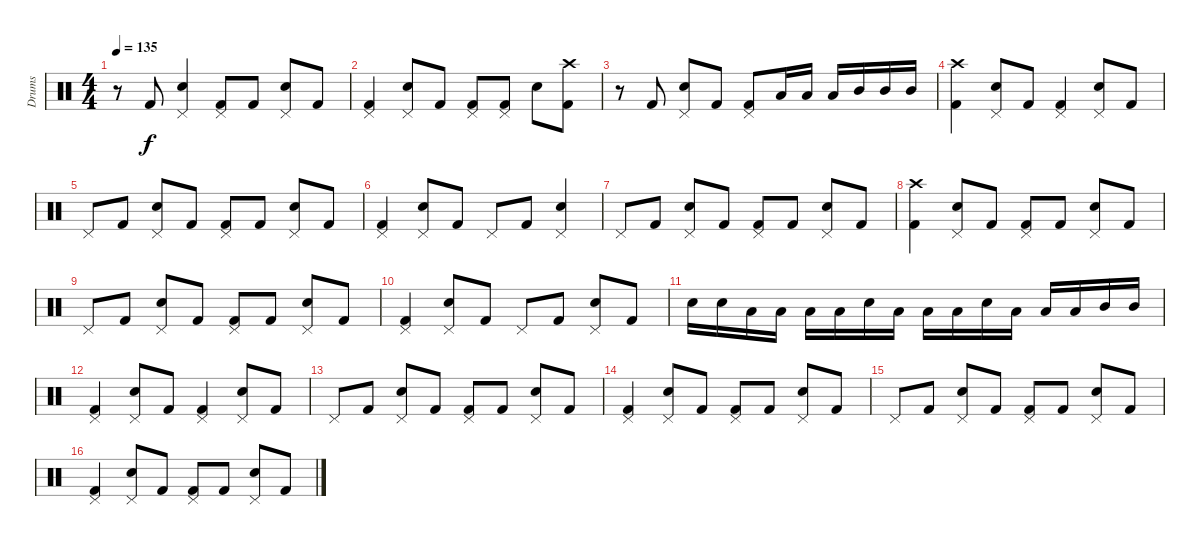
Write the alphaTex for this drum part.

\track ("Drums" "Drums") {instrument percussion}
\staff {score}
\articulation defaults
\ts (4 4)
\tempo 135
\clef neutral
\ks c
r.8{dy f} "Kick (hit) 2".8 ("Pedal Hi-Hat (hit)" "Electric Snare (hit)").4 ("Pedal Hi-Hat (hit)" "Kick (hit) 2").8 "Kick (hit) 2".8 ("Pedal Hi-Hat (hit)" "Electric Snare (hit)").8 "Kick (hit) 2".8 |
("Pedal Hi-Hat (hit)" "Kick (hit) 2").4 ("Pedal Hi-Hat (hit)" "Electric Snare (hit)").8 "Kick (hit) 2".8 ("Pedal Hi-Hat (hit)" "Kick (hit) 2").8 ("Pedal Hi-Hat (hit)" "Kick (hit) 2").8 "Electric Snare (hit)".8 ("Crash high (hit)" "Kick (hit) 2").8 |
r.8 "Kick (hit) 2".8 ("Pedal Hi-Hat (hit)" "Electric Snare (hit)").8 "Kick (hit) 2".8 ("Pedal Hi-Hat (hit)" "Kick (hit) 2").8 "Low Tom (hit)".16 "Low Tom (hit)".16 "Low Tom (hit)".16 "Mid Tom (hit)".16 "Mid Tom (hit)".16 "Mid Tom (hit)".16 |
("Crash high (hit)" "Kick (hit) 2").4 ("Pedal Hi-Hat (hit)" "Electric Snare (hit)").8 "Kick (hit) 2".8 ("Pedal Hi-Hat (hit)" "Kick (hit) 2").4 ("Pedal Hi-Hat (hit)" "Electric Snare (hit)").8 "Kick (hit) 2".8 |
"Pedal Hi-Hat (hit)".8 "Kick (hit) 2".8 ("Pedal Hi-Hat (hit)" "Electric Snare (hit)").8 "Kick (hit) 2".8 ("Pedal Hi-Hat (hit)" "Kick (hit) 2").8 "Kick (hit) 2".8 ("Pedal Hi-Hat (hit)" "Electric Snare (hit)").8 "Kick (hit) 2".8 |
("Pedal Hi-Hat (hit)" "Kick (hit) 2").4 ("Pedal Hi-Hat (hit)" "Electric Snare (hit)").8 "Kick (hit) 2".8 "Pedal Hi-Hat (hit)".8 "Kick (hit) 2".8 ("Pedal Hi-Hat (hit)" "Electric Snare (hit)").4 |
"Pedal Hi-Hat (hit)".8 "Kick (hit) 2".8 ("Pedal Hi-Hat (hit)" "Electric Snare (hit)").8 "Kick (hit) 2".8 ("Pedal Hi-Hat (hit)" "Kick (hit) 2").8 "Kick (hit) 2".8 ("Pedal Hi-Hat (hit)" "Electric Snare (hit)").8 "Kick (hit) 2".8 |
("Crash high (hit)" "Kick (hit) 2").4 ("Pedal Hi-Hat (hit)" "Electric Snare (hit)").8 "Kick (hit) 2".8 ("Pedal Hi-Hat (hit)" "Kick (hit) 2").8 "Kick (hit) 2".8 ("Pedal Hi-Hat (hit)" "Electric Snare (hit)").8 "Kick (hit) 2".8 |
"Pedal Hi-Hat (hit)".8 "Kick (hit) 2".8 ("Pedal Hi-Hat (hit)" "Electric Snare (hit)").8 "Kick (hit) 2".8 ("Pedal Hi-Hat (hit)" "Kick (hit) 2").8 "Kick (hit) 2".8 ("Pedal Hi-Hat (hit)" "Electric Snare (hit)").8 "Kick (hit) 2".8 |
("Pedal Hi-Hat (hit)" "Kick (hit) 2").4 ("Pedal Hi-Hat (hit)" "Electric Snare (hit)").8 "Kick (hit) 2".8 "Pedal Hi-Hat (hit)".8 "Kick (hit) 2".8 ("Pedal Hi-Hat (hit)" "Electric Snare (hit)").8 "Kick (hit) 2".8 |
"Electric Snare (hit)".16 "Electric Snare (hit)".16 "Low Tom (hit)".16 "Low Tom (hit)".16 "Low Tom (hit)".16 "Low Tom (hit)".16 "Electric Snare (hit)".16 "Low Tom (hit)".16 "Low Tom (hit)".16 "Low Tom (hit)".16 "Electric Snare (hit)".16 "Low Tom (hit)".16 "Low Tom (hit)".16 "Low Tom (hit)".16 "Mid Tom (hit)".16 "Mid Tom (hit)".16 |
("Pedal Hi-Hat (hit)" "Kick (hit) 2").4 ("Pedal Hi-Hat (hit)" "Electric Snare (hit)").8 "Kick (hit) 2".8 ("Pedal Hi-Hat (hit)" "Kick (hit) 2").4 ("Pedal Hi-Hat (hit)" "Electric Snare (hit)").8 "Kick (hit) 2".8 |
"Pedal Hi-Hat (hit)".8 "Kick (hit) 2".8 ("Pedal Hi-Hat (hit)" "Electric Snare (hit)").8 "Kick (hit) 2".8 ("Pedal Hi-Hat (hit)" "Kick (hit) 2").8 "Kick (hit) 2".8 ("Pedal Hi-Hat (hit)" "Electric Snare (hit)").8 "Kick (hit) 2".8 |
("Pedal Hi-Hat (hit)" "Kick (hit) 2").4 ("Pedal Hi-Hat (hit)" "Electric Snare (hit)").8 "Kick (hit) 2".8 ("Pedal Hi-Hat (hit)" "Kick (hit) 2").8 "Kick (hit) 2".8 ("Pedal Hi-Hat (hit)" "Electric Snare (hit)").8 "Kick (hit) 2".8 |
"Pedal Hi-Hat (hit)".8 "Kick (hit) 2".8 ("Pedal Hi-Hat (hit)" "Electric Snare (hit)").8 "Kick (hit) 2".8 ("Pedal Hi-Hat (hit)" "Kick (hit) 2").8 "Kick (hit) 2".8 ("Pedal Hi-Hat (hit)" "Electric Snare (hit)").8 "Kick (hit) 2".8 |
("Pedal Hi-Hat (hit)" "Kick (hit) 2").4 ("Pedal Hi-Hat (hit)" "Electric Snare (hit)").8 "Kick (hit) 2".8 ("Pedal Hi-Hat (hit)" "Kick (hit) 2").8 "Kick (hit) 2".8 ("Pedal Hi-Hat (hit)" "Electric Snare (hit)").8 "Kick (hit) 2".8
